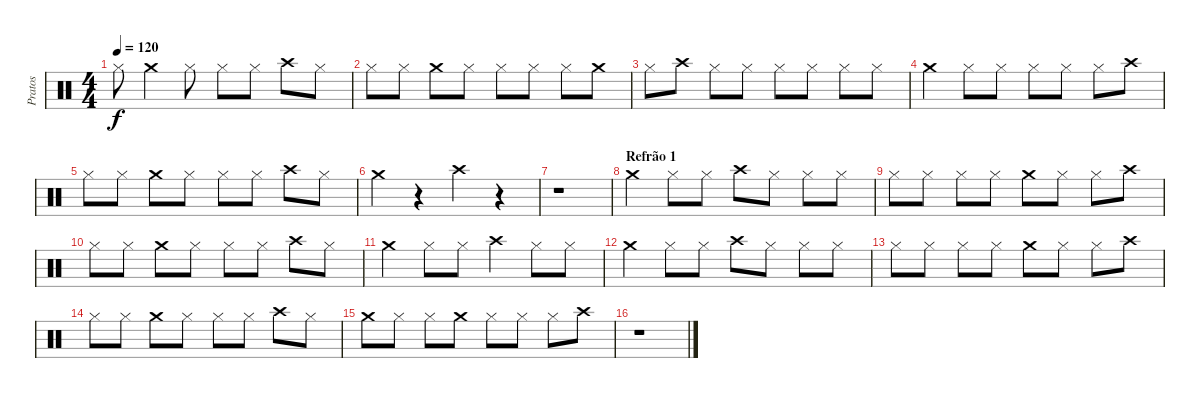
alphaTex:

\track ("Pratos" "Pratos") {instrument percussion}
\staff {score}
\articulation defaults
\ts (4 4)
\tempo 120
\clef neutral
\ks c "Hi-Hat (closed)".8{dy f} "Crash medium (hit)".4 "Hi-Hat (closed)".8 "Hi-Hat (closed)".8 "Hi-Hat (closed)".8 "Crash high (hit)".8 "Hi-Hat (closed)".8
|
"Hi-Hat (closed)".8 "Hi-Hat (closed)".8 "Crash medium (hit)".8 "Hi-Hat (closed)".8 "Hi-Hat (closed)".8 "Hi-Hat (closed)".8 "Hi-Hat (closed)".8 "Crash medium (hit)".8 |
"Hi-Hat (closed)".8 "Crash high (hit)".8 "Hi-Hat (closed)".8 "Hi-Hat (closed)".8 "Hi-Hat (closed)".8 "Hi-Hat (closed)".8 "Hi-Hat (closed)".8 "Hi-Hat (closed)".8 |
"Crash medium (hit)".4 "Hi-Hat (closed)".8 "Hi-Hat (closed)".8 "Hi-Hat (closed)".8 "Hi-Hat (closed)".8 "Hi-Hat (closed)".8 "Crash high (hit)".8 |
"Hi-Hat (closed)".8 "Hi-Hat (closed)".8 "Crash medium (hit)".8 "Hi-Hat (closed)".8 "Hi-Hat (closed)".8 "Hi-Hat (closed)".8 "Crash high (hit)".8 "Hi-Hat (closed)".8 |
"Crash medium (hit)".4 r.4 "Crash high (hit)".4 r.4 |
r.1 |
\section ("" "Refrão 1")
"Crash medium (hit)".4 "Hi-Hat (closed)".8 "Hi-Hat (closed)".8 "Crash high (hit)".8 "Hi-Hat (closed)".8 "Hi-Hat (closed)".8 "Hi-Hat (closed)".8 |
"Hi-Hat (closed)".8 "Hi-Hat (closed)".8 "Hi-Hat (closed)".8 "Hi-Hat (closed)".8 "Crash medium (hit)".8 "Hi-Hat (closed)".8 "Hi-Hat (closed)".8 "Crash high (hit)".8 |
"Hi-Hat (closed)".8 "Hi-Hat (closed)".8 "Crash medium (hit)".8 "Hi-Hat (closed)".8 "Hi-Hat (closed)".8 "Hi-Hat (closed)".8 "Crash high (hit)".8 "Hi-Hat (closed)".8 |
"Crash medium (hit)".4 "Hi-Hat (closed)".8 "Hi-Hat (closed)".8 "Crash high (hit)".4 "Hi-Hat (closed)".8 "Hi-Hat (closed)".8 |
"Crash medium (hit)".4 "Hi-Hat (closed)".8 "Hi-Hat (closed)".8 "Crash high (hit)".8 "Hi-Hat (closed)".8 "Hi-Hat (closed)".8 "Hi-Hat (closed)".8 |
"Hi-Hat (closed)".8 "Hi-Hat (closed)".8 "Hi-Hat (closed)".8 "Hi-Hat (closed)".8 "Crash medium (hit)".8 "Hi-Hat (closed)".8 "Hi-Hat (closed)".8 "Crash high (hit)".8 |
"Hi-Hat (closed)".8 "Hi-Hat (closed)".8 "Crash medium (hit)".8 "Hi-Hat (closed)".8 "Hi-Hat (closed)".8 "Hi-Hat (closed)".8 "Crash high (hit)".8 "Hi-Hat (closed)".8 |
"Crash medium (hit)".8 "Hi-Hat (closed)".8 "Hi-Hat (closed)".8 "Crash medium (hit)".8 "Hi-Hat (closed)".8 "Hi-Hat (closed)".8 "Hi-Hat (closed)".8 "Crash high (hit)".8 |
r.1
